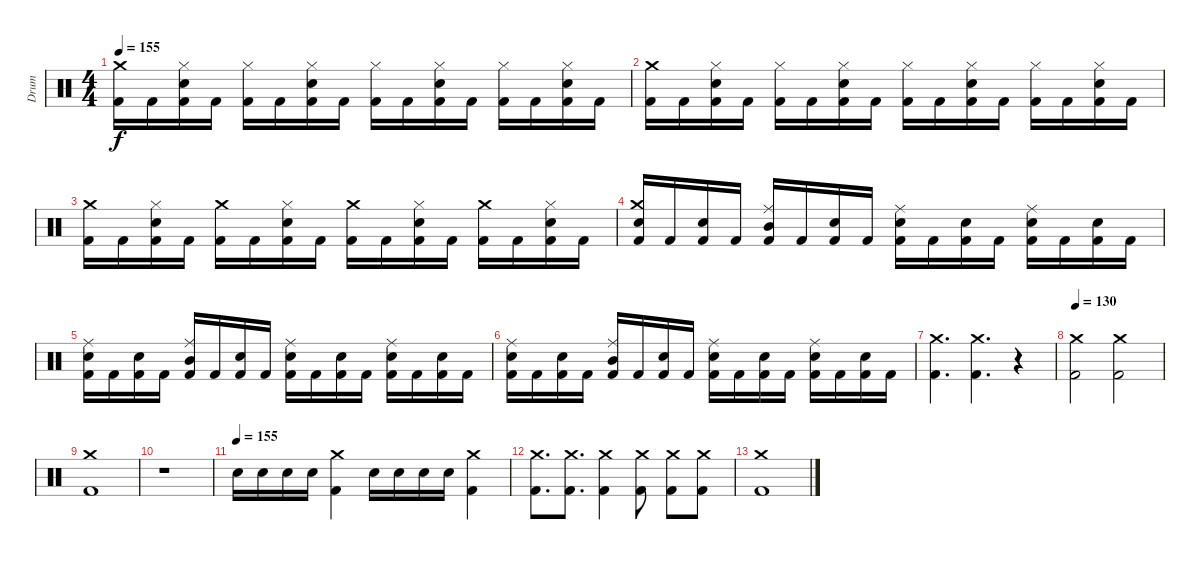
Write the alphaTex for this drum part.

\track ("Drum" "Drum") {instrument percussion}
\staff {score}
\articulation defaults
\ts (4 4)
\tempo 155
\clef neutral
\ks c
("Kick (hit) 2" "Crash medium (hit)").16{dy f} "Kick (hit) 2".16 ("Kick (hit) 2" "Hi-Hat (closed)" "Electric Snare (hit)").16 "Kick (hit) 2".16 ("Kick (hit) 2" "Hi-Hat (closed)").16 "Kick (hit) 2".16 ("Kick (hit) 2" "Hi-Hat (closed)" "Electric Snare (hit)").16 "Kick (hit) 2".16 ("Kick (hit) 2" "Hi-Hat (closed)").16 "Kick (hit) 2".16 ("Kick (hit) 2" "Hi-Hat (closed)" "Electric Snare (hit)").16 "Kick (hit) 2".16 ("Kick (hit) 2" "Hi-Hat (closed)").16 "Kick (hit) 2".16 ("Kick (hit) 2" "Hi-Hat (closed)" "Electric Snare (hit)").16 "Kick (hit) 2".16 |
("Kick (hit) 2" "Crash medium (hit)").16 "Kick (hit) 2".16 ("Kick (hit) 2" "Hi-Hat (closed)" "Electric Snare (hit)").16 "Kick (hit) 2".16 ("Kick (hit) 2" "Hi-Hat (closed)").16 "Kick (hit) 2".16 ("Kick (hit) 2" "Hi-Hat (closed)" "Electric Snare (hit)").16 "Kick (hit) 2".16 ("Kick (hit) 2" "Hi-Hat (closed)").16 "Kick (hit) 2".16 ("Kick (hit) 2" "Hi-Hat (closed)" "Electric Snare (hit)").16 "Kick (hit) 2".16 ("Kick (hit) 2" "Hi-Hat (closed)").16 "Kick (hit) 2".16 ("Kick (hit) 2" "Hi-Hat (closed)" "Electric Snare (hit)").16 "Kick (hit) 2".16 |
("Kick (hit) 2" "Crash medium (hit)").16 "Kick (hit) 2".16 ("Kick (hit) 2" "Hi-Hat (closed)" "Electric Snare (hit)").16 "Kick (hit) 2".16 ("Kick (hit) 2" "Crash medium (hit)").16 "Kick (hit) 2".16 ("Kick (hit) 2" "Hi-Hat (closed)" "Electric Snare (hit)").16 "Kick (hit) 2".16 ("Kick (hit) 2" "Crash medium (hit)").16 "Kick (hit) 2".16 ("Kick (hit) 2" "Hi-Hat (closed)" "Electric Snare (hit)").16 "Kick (hit) 2".16 ("Kick (hit) 2" "Crash medium (hit)").16 "Kick (hit) 2".16 ("Kick (hit) 2" "Hi-Hat (closed)" "Electric Snare (hit)").16 "Kick (hit) 2".16 |
("Kick (hit) 2" "Crash medium (hit)" "Electric Snare (hit)").16 "Kick (hit) 2".16 ("Kick (hit) 2" "Electric Snare (hit)").16 "Kick (hit) 2".16 ("Kick (hit) 2" "Ride (middle)" "Mid Tom (hit)").16 "Kick (hit) 2".16 ("Kick (hit) 2" "Electric Snare (hit)").16 "Kick (hit) 2".16 ("Kick (hit) 2" "Ride (middle)" "Electric Snare (hit)").16 "Kick (hit) 2".16 ("Kick (hit) 2" "Electric Snare (hit)").16 "Kick (hit) 2".16 ("Kick (hit) 2" "Ride (middle)" "Electric Snare (hit)").16 "Kick (hit) 2".16 ("Kick (hit) 2" "Electric Snare (hit)").16 "Kick (hit) 2".16 |
("Kick (hit) 2" "Ride (middle)" "Electric Snare (hit)").16 "Kick (hit) 2".16 ("Kick (hit) 2" "Electric Snare (hit)").16 "Kick (hit) 2".16 ("Kick (hit) 2" "Ride (middle)" "Mid Tom (hit)").16 "Kick (hit) 2".16 ("Kick (hit) 2" "Electric Snare (hit)").16 "Kick (hit) 2".16 ("Kick (hit) 2" "Ride (middle)" "Electric Snare (hit)").16 "Kick (hit) 2".16 ("Kick (hit) 2" "Electric Snare (hit)").16 "Kick (hit) 2".16 ("Kick (hit) 2" "Ride (middle)" "Electric Snare (hit)").16 "Kick (hit) 2".16 ("Kick (hit) 2" "Electric Snare (hit)").16 "Kick (hit) 2".16 |
("Kick (hit) 2" "Ride (middle)" "Electric Snare (hit)").16 "Kick (hit) 2".16 ("Kick (hit) 2" "Electric Snare (hit)").16 "Kick (hit) 2".16 ("Kick (hit) 2" "Ride (middle)" "Mid Tom (hit)").16 "Kick (hit) 2".16 ("Kick (hit) 2" "Electric Snare (hit)").16 "Kick (hit) 2".16 ("Kick (hit) 2" "Ride (middle)" "Electric Snare (hit)").16 "Kick (hit) 2".16 ("Kick (hit) 2" "Electric Snare (hit)").16 "Kick (hit) 2".16 ("Kick (hit) 2" "Ride (middle)" "Electric Snare (hit)").16 "Kick (hit) 2".16 ("Kick (hit) 2" "Electric Snare (hit)").16 "Kick (hit) 2".16 |
("Kick (hit) 2" "Crash medium (hit)").4{d} ("Kick (hit) 2" "Crash medium (hit)").4{d} r.4 |
\tempo 130
("Kick (hit) 2" "Crash medium (hit)").2 ("Kick (hit) 2" "Crash medium (hit)").2 |
("Kick (hit) 2" "Crash medium (hit)").1 |
r.1 |
\tempo (155)
"Electric Snare (hit)".16 "Electric Snare (hit)".16 "Electric Snare (hit)".16 "Electric Snare (hit)".16 ("Kick (hit) 2" "Crash medium (hit)").4 "Electric Snare (hit)".16 "Electric Snare (hit)".16 "Electric Snare (hit)".16 "Electric Snare (hit)".16 ("Kick (hit) 2" "Crash medium (hit)").4 |
("Kick (hit) 2" "Crash medium (hit)").8{d} ("Kick (hit) 2" "Crash medium (hit)").8{d} ("Kick (hit) 2" "Crash medium (hit)").4 ("Kick (hit) 2" "Crash medium (hit)").8 ("Kick (hit) 2" "Crash medium (hit)").8 ("Kick (hit) 2" "Crash medium (hit)").8 |
("Kick (hit) 2" "Crash medium (hit)").1
